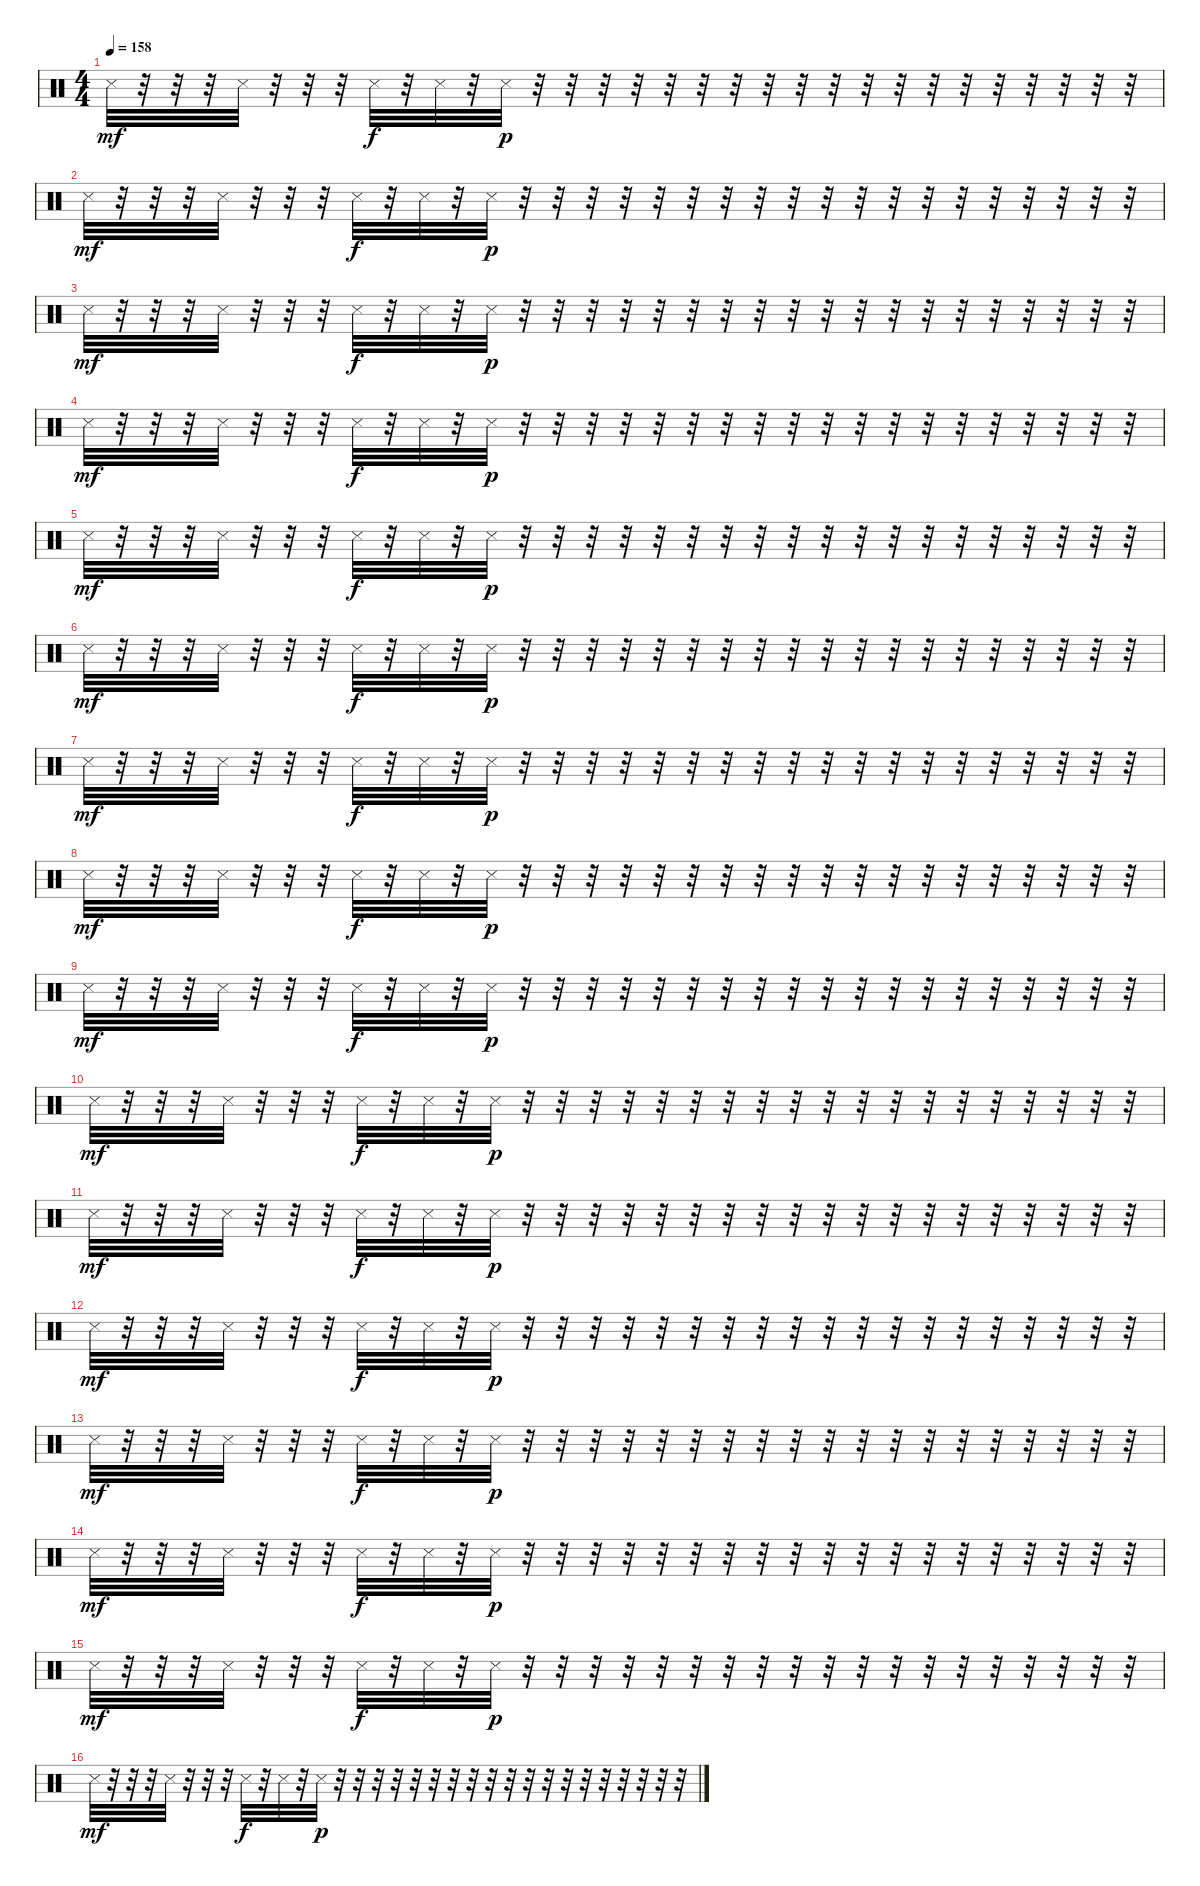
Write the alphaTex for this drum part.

\track ("   " "   ") {instrument percussion}
\staff
\articulation defaults
\ts (4 4)
\tempo 158
\clef neutral
\ks c "Snare (side stick) 3".32{dy mf}
r.32 r.32 r.32 "Snare (side stick) 3".32 r.32 r.32 r.32 "Snare (side stick) 3".32{dy f} r.32 "Snare (side stick) 3".32 r.32 "Snare (side stick) 3".32{dy p} r.32 r.32 r.32 r.32 r.32 r.32 r.32 r.32 r.32 r.32 r.32 r.32 r.32 r.32 r.32 r.32 r.32 r.32 r.32 |
"Snare (side stick) 3".32{dy mf} r.32 r.32 r.32 "Snare (side stick) 3".32 r.32 r.32 r.32 "Snare (side stick) 3".32{dy f} r.32 "Snare (side stick) 3".32 r.32 "Snare (side stick) 3".32{dy p} r.32 r.32 r.32 r.32 r.32 r.32 r.32 r.32 r.32 r.32 r.32 r.32 r.32 r.32 r.32 r.32 r.32 r.32 r.32 |
"Snare (side stick) 3".32{dy mf} r.32 r.32 r.32 "Snare (side stick) 3".32 r.32 r.32 r.32 "Snare (side stick) 3".32{dy f} r.32 "Snare (side stick) 3".32 r.32 "Snare (side stick) 3".32{dy p} r.32 r.32 r.32 r.32 r.32 r.32 r.32 r.32 r.32 r.32 r.32 r.32 r.32 r.32 r.32 r.32 r.32 r.32 r.32 |
"Snare (side stick) 3".32{dy mf} r.32 r.32 r.32 "Snare (side stick) 3".32 r.32 r.32 r.32 "Snare (side stick) 3".32{dy f} r.32 "Snare (side stick) 3".32 r.32 "Snare (side stick) 3".32{dy p} r.32 r.32 r.32 r.32 r.32 r.32 r.32 r.32 r.32 r.32 r.32 r.32 r.32 r.32 r.32 r.32 r.32 r.32 r.32 |
"Snare (side stick) 3".32{dy mf} r.32 r.32 r.32 "Snare (side stick) 3".32 r.32 r.32 r.32 "Snare (side stick) 3".32{dy f} r.32 "Snare (side stick) 3".32 r.32 "Snare (side stick) 3".32{dy p} r.32 r.32 r.32 r.32 r.32 r.32 r.32 r.32 r.32 r.32 r.32 r.32 r.32 r.32 r.32 r.32 r.32 r.32 r.32 |
"Snare (side stick) 3".32{dy mf} r.32 r.32 r.32 "Snare (side stick) 3".32 r.32 r.32 r.32 "Snare (side stick) 3".32{dy f} r.32 "Snare (side stick) 3".32 r.32 "Snare (side stick) 3".32{dy p} r.32 r.32 r.32 r.32 r.32 r.32 r.32 r.32 r.32 r.32 r.32 r.32 r.32 r.32 r.32 r.32 r.32 r.32 r.32 |
"Snare (side stick) 3".32{dy mf} r.32 r.32 r.32 "Snare (side stick) 3".32 r.32 r.32 r.32 "Snare (side stick) 3".32{dy f} r.32 "Snare (side stick) 3".32 r.32 "Snare (side stick) 3".32{dy p} r.32 r.32 r.32 r.32 r.32 r.32 r.32 r.32 r.32 r.32 r.32 r.32 r.32 r.32 r.32 r.32 r.32 r.32 r.32 |
"Snare (side stick) 3".32{dy mf} r.32 r.32 r.32 "Snare (side stick) 3".32 r.32 r.32 r.32 "Snare (side stick) 3".32{dy f} r.32 "Snare (side stick) 3".32 r.32 "Snare (side stick) 3".32{dy p} r.32 r.32 r.32 r.32 r.32 r.32 r.32 r.32 r.32 r.32 r.32 r.32 r.32 r.32 r.32 r.32 r.32 r.32 r.32 |
"Snare (side stick) 3".32{dy mf} r.32 r.32 r.32 "Snare (side stick) 3".32 r.32 r.32 r.32 "Snare (side stick) 3".32{dy f} r.32 "Snare (side stick) 3".32 r.32 "Snare (side stick) 3".32{dy p} r.32 r.32 r.32 r.32 r.32 r.32 r.32 r.32 r.32 r.32 r.32 r.32 r.32 r.32 r.32 r.32 r.32 r.32 r.32 |
"Snare (side stick) 3".32{dy mf} r.32 r.32 r.32 "Snare (side stick) 3".32 r.32 r.32 r.32 "Snare (side stick) 3".32{dy f} r.32 "Snare (side stick) 3".32 r.32 "Snare (side stick) 3".32{dy p} r.32 r.32 r.32 r.32 r.32 r.32 r.32 r.32 r.32 r.32 r.32 r.32 r.32 r.32 r.32 r.32 r.32 r.32 r.32 |
"Snare (side stick) 3".32{dy mf} r.32 r.32 r.32 "Snare (side stick) 3".32 r.32 r.32 r.32 "Snare (side stick) 3".32{dy f} r.32 "Snare (side stick) 3".32 r.32 "Snare (side stick) 3".32{dy p} r.32 r.32 r.32 r.32 r.32 r.32 r.32 r.32 r.32 r.32 r.32 r.32 r.32 r.32 r.32 r.32 r.32 r.32 r.32 |
"Snare (side stick) 3".32{dy mf} r.32 r.32 r.32 "Snare (side stick) 3".32 r.32 r.32 r.32 "Snare (side stick) 3".32{dy f} r.32 "Snare (side stick) 3".32 r.32 "Snare (side stick) 3".32{dy p} r.32 r.32 r.32 r.32 r.32 r.32 r.32 r.32 r.32 r.32 r.32 r.32 r.32 r.32 r.32 r.32 r.32 r.32 r.32 |
"Snare (side stick) 3".32{dy mf} r.32 r.32 r.32 "Snare (side stick) 3".32 r.32 r.32 r.32 "Snare (side stick) 3".32{dy f} r.32 "Snare (side stick) 3".32 r.32 "Snare (side stick) 3".32{dy p} r.32 r.32 r.32 r.32 r.32 r.32 r.32 r.32 r.32 r.32 r.32 r.32 r.32 r.32 r.32 r.32 r.32 r.32 r.32 |
"Snare (side stick) 3".32{dy mf} r.32 r.32 r.32 "Snare (side stick) 3".32 r.32 r.32 r.32 "Snare (side stick) 3".32{dy f} r.32 "Snare (side stick) 3".32 r.32 "Snare (side stick) 3".32{dy p} r.32 r.32 r.32 r.32 r.32 r.32 r.32 r.32 r.32 r.32 r.32 r.32 r.32 r.32 r.32 r.32 r.32 r.32 r.32 |
"Snare (side stick) 3".32{dy mf} r.32 r.32 r.32 "Snare (side stick) 3".32 r.32 r.32 r.32 "Snare (side stick) 3".32{dy f} r.32 "Snare (side stick) 3".32 r.32 "Snare (side stick) 3".32{dy p} r.32 r.32 r.32 r.32 r.32 r.32 r.32 r.32 r.32 r.32 r.32 r.32 r.32 r.32 r.32 r.32 r.32 r.32 r.32 |
"Snare (side stick) 3".32{dy mf} r.32 r.32 r.32 "Snare (side stick) 3".32 r.32 r.32 r.32 "Snare (side stick) 3".32{dy f} r.32 "Snare (side stick) 3".32 r.32 "Snare (side stick) 3".32{dy p} r.32 r.32 r.32 r.32 r.32 r.32 r.32 r.32 r.32 r.32 r.32 r.32 r.32 r.32 r.32 r.32 r.32 r.32 r.32
